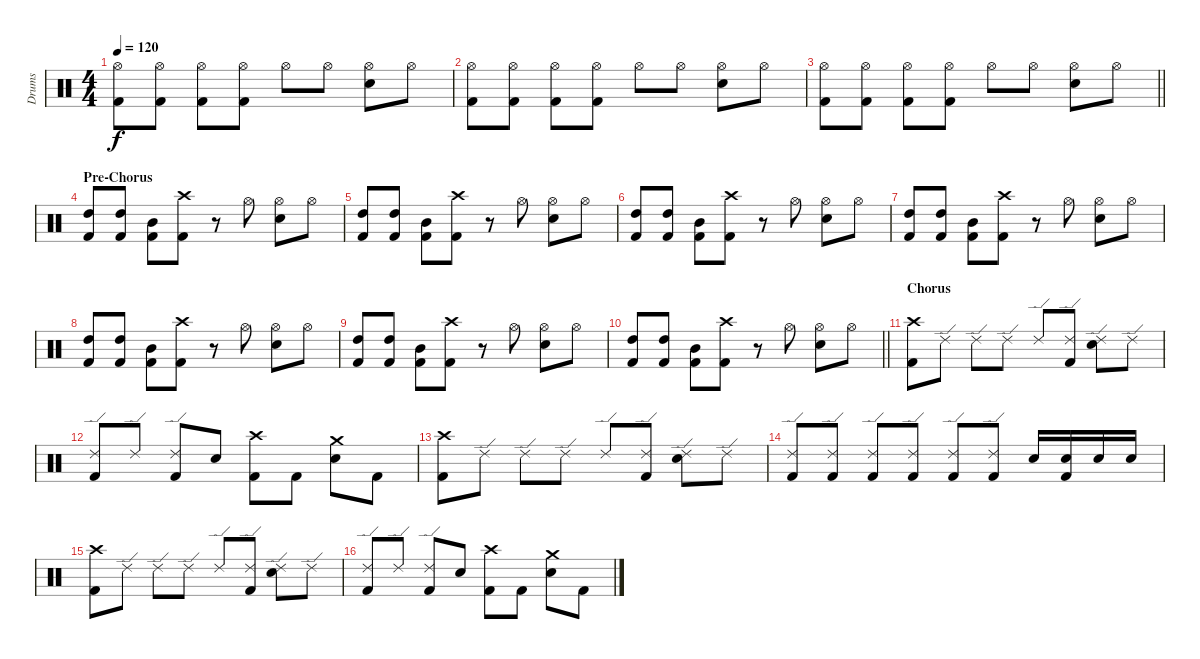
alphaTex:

\track ("Drums" "Drums") {instrument percussion}
\staff {score}
\articulation defaults
\ts (4 4)
\tempo 120
\clef neutral
\ks c
("Hi-Hat (open)" "Kick (hit) 2").8{dy f} ("Hi-Hat (open)" "Kick (hit) 2").8 ("Hi-Hat (open)" "Kick (hit) 2").8 ("Hi-Hat (open)" "Kick (hit) 2").8 "Hi-Hat (open)".8 "Hi-Hat (open)".8 ("Hi-Hat (open)" "Snare (hit) 2").8 "Hi-Hat (open)".8 |
("Hi-Hat (open)" "Kick (hit) 2").8 ("Hi-Hat (open)" "Kick (hit) 2").8 ("Hi-Hat (open)" "Kick (hit) 2").8 ("Hi-Hat (open)" "Kick (hit) 2").8 "Hi-Hat (open)".8 "Hi-Hat (open)".8 ("Hi-Hat (open)" "Snare (hit) 2").8 "Hi-Hat (open)".8 |
\barLineRight lightlight
("Hi-Hat (open)" "Kick (hit) 2").8 ("Hi-Hat (open)" "Kick (hit) 2").8 ("Hi-Hat (open)" "Kick (hit) 2").8 ("Hi-Hat (open)" "Kick (hit) 2").8 "Hi-Hat (open)".8 "Hi-Hat (open)".8 ("Hi-Hat (open)" "Snare (hit) 2").8 "Hi-Hat (open)".8 |
\section ("" "Pre-Chorus")
("High Tom (hit)" "Kick (hit) 2").8 ("High Tom (hit)" "Kick (hit) 2").8 ("Mid Tom (hit)" "Kick (hit) 2").8 ("Crash high (hit)" "Kick (hit) 2").8 r.8 "Hi-Hat (open)".8 ("Hi-Hat (open)" "Snare (hit) 2").8 "Hi-Hat (open)".8 |
("High Tom (hit)" "Kick (hit) 2").8 ("High Tom (hit)" "Kick (hit) 2").8 ("Mid Tom (hit)" "Kick (hit) 2").8 ("Crash high (hit)" "Kick (hit) 2").8 r.8 "Hi-Hat (open)".8 ("Hi-Hat (open)" "Snare (hit) 2").8 "Hi-Hat (open)".8 |
("High Tom (hit)" "Kick (hit) 2").8 ("High Tom (hit)" "Kick (hit) 2").8 ("Mid Tom (hit)" "Kick (hit) 2").8 ("Crash high (hit)" "Kick (hit) 2").8 r.8 "Hi-Hat (open)".8 ("Hi-Hat (open)" "Snare (hit) 2").8 "Hi-Hat (open)".8 |
("High Tom (hit)" "Kick (hit) 2").8 ("High Tom (hit)" "Kick (hit) 2").8 ("Mid Tom (hit)" "Kick (hit) 2").8 ("Crash high (hit)" "Kick (hit) 2").8 r.8 "Hi-Hat (open)".8 ("Hi-Hat (open)" "Snare (hit) 2").8 "Hi-Hat (open)".8 |
("High Tom (hit)" "Kick (hit) 2").8 ("High Tom (hit)" "Kick (hit) 2").8 ("Mid Tom (hit)" "Kick (hit) 2").8 ("Crash high (hit)" "Kick (hit) 2").8 r.8 "Hi-Hat (open)".8 ("Hi-Hat (open)" "Snare (hit) 2").8 "Hi-Hat (open)".8 |
("High Tom (hit)" "Kick (hit) 2").8 ("High Tom (hit)" "Kick (hit) 2").8 ("Mid Tom (hit)" "Kick (hit) 2").8 ("Crash high (hit)" "Kick (hit) 2").8 r.8 "Hi-Hat (open)".8 ("Hi-Hat (open)" "Snare (hit) 2").8 "Hi-Hat (open)".8 |
\barLineRight lightlight
("High Tom (hit)" "Kick (hit) 2").8 ("High Tom (hit)" "Kick (hit) 2").8 ("Mid Tom (hit)" "Kick (hit) 2").8 ("Crash high (hit)" "Kick (hit) 2").8 r.8 "Hi-Hat (open)".8 ("Hi-Hat (open)" "Snare (hit) 2").8 "Hi-Hat (open)".8 |
\section ("" "Chorus")
("Crash high (hit)" "Kick (hit) 2").8 "Ride (edge) 2".8 "Ride (edge) 2".8 "Ride (edge) 2".8 "Ride (edge) 2".8 ("Ride (edge) 2" "Kick (hit) 2").8 ("Ride (edge) 2" "Snare (hit) 2").8 "Ride (edge) 2".8 |
("Ride (edge) 2" "Kick (hit) 2").8 "Ride (edge) 2".8 ("Ride (edge) 2" "Kick (hit) 2").8 "Snare (hit) 2".8 ("Crash high (hit)" "Kick (hit) 2").8 "Kick (hit) 2".8 ("Crash medium (hit)" "Snare (hit) 2").8 "Kick (hit) 2".8 |
("Crash high (hit)" "Kick (hit) 2").8 "Ride (edge) 2".8 "Ride (edge) 2".8 "Ride (edge) 2".8 "Ride (edge) 2".8 ("Ride (edge) 2" "Kick (hit) 2").8 ("Ride (edge) 2" "Snare (hit) 2").8 "Ride (edge) 2".8 |
("Ride (edge) 2" "Kick (hit) 2").8 ("Ride (edge) 2" "Kick (hit) 2").8 ("Ride (edge) 2" "Kick (hit) 2").8 ("Ride (edge) 2" "Kick (hit) 2").8 ("Ride (edge) 2" "Kick (hit) 2").8 ("Ride (edge) 2" "Kick (hit) 2").8 "Snare (hit) 2".16 ("Snare (hit) 2" "Kick (hit) 2").16 "Snare (hit) 2".16 "Snare (hit) 2".16 |
("Crash high (hit)" "Kick (hit) 2").8 "Ride (edge) 2".8 "Ride (edge) 2".8 "Ride (edge) 2".8 "Ride (edge) 2".8 ("Ride (edge) 2" "Kick (hit) 2").8 ("Ride (edge) 2" "Snare (hit) 2").8 "Ride (edge) 2".8 |
("Ride (edge) 2" "Kick (hit) 2").8 "Ride (edge) 2".8 ("Ride (edge) 2" "Kick (hit) 2").8 "Snare (hit) 2".8 ("Crash high (hit)" "Kick (hit) 2").8 "Kick (hit) 2".8 ("Crash medium (hit)" "Snare (hit) 2").8 "Kick (hit) 2".8
